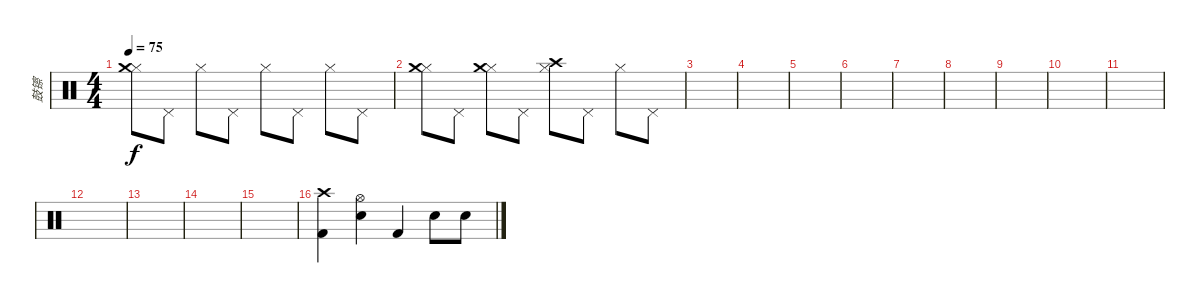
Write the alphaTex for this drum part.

\track ("鼓镲" "鼓镲") {instrument percussion}
\staff {score}
\articulation defaults
\ts (4 4)
\tempo 75
\clef neutral
\ks c
("Hi-Hat (closed)" "Crash medium (hit)").8{dy f} "Pedal Hi-Hat (hit)".8 "Hi-Hat (closed)".8 "Pedal Hi-Hat (hit)".8 "Hi-Hat (closed)".8 "Pedal Hi-Hat (hit)".8 "Hi-Hat (closed)".8 "Pedal Hi-Hat (hit)".8 |
("Hi-Hat (closed)" "Crash medium (hit)").8 "Pedal Hi-Hat (hit)".8 ("Hi-Hat (closed)" "Crash medium (hit)").8 "Pedal Hi-Hat (hit)".8 ("Hi-Hat (closed)" "Crash high (hit)").8 "Pedal Hi-Hat (hit)".8 "Hi-Hat (closed)".8 "Pedal Hi-Hat (hit)".8 |
|
|
|
|
|
|
|
|
|
|
|
|
|
("Crash high (hit)" "Kick (hit) 2").4 ("Hi-Hat (open)" "Electric Snare (hit)").4 "Kick (hit) 2".4 "Electric Snare (hit)".8 "Electric Snare (hit)".8
